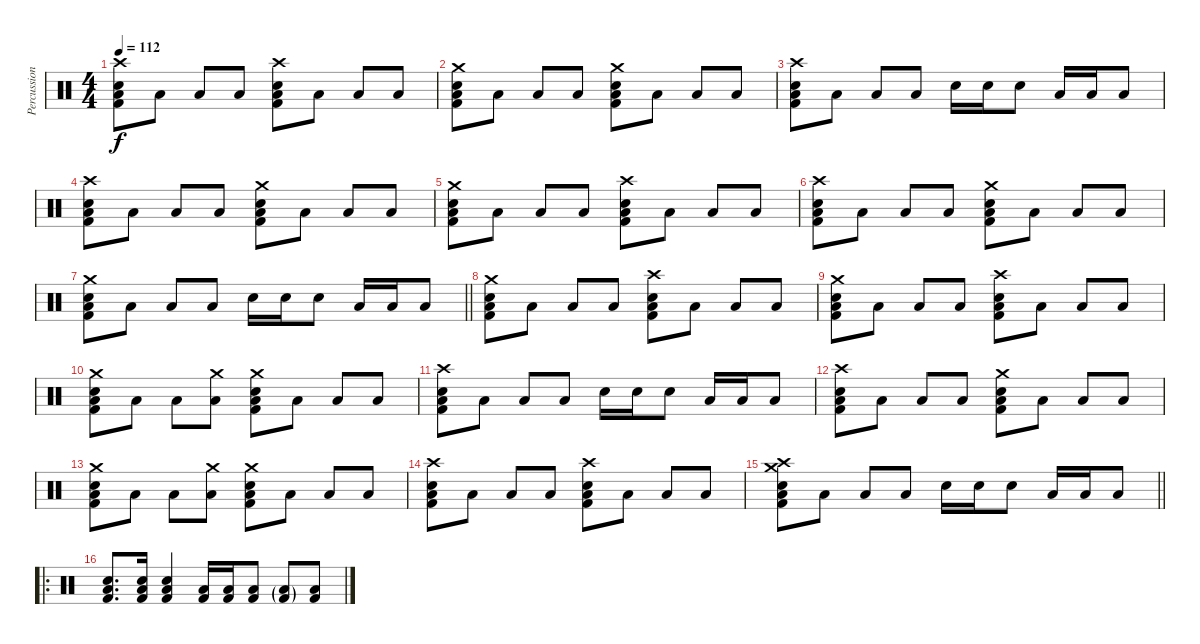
\track ("Percussion" "Percussion") {instrument percussion}
\staff {score}
\articulation defaults
\ts (4 4)
\tempo 112
\clef neutral
\ks c
("Snare (hit) 2" "Low Floor Tom (hit)" "Kick (hit) 2" "Crash high (hit)").8{dy f} "Low Floor Tom (hit)".8 "Low Floor Tom (hit)".8 "Low Floor Tom (hit)".8 ("Snare (hit) 2" "Low Floor Tom (hit)" "Kick (hit) 2" "Crash high (hit)").8 "Low Floor Tom (hit)".8 "Low Floor Tom (hit)".8 "Low Floor Tom (hit)".8 |
("Snare (hit) 2" "Low Floor Tom (hit)" "Kick (hit) 2" "Crash medium (hit)").8 "Low Floor Tom (hit)".8 "Low Floor Tom (hit)".8 "Low Floor Tom (hit)".8 ("Snare (hit) 2" "Low Floor Tom (hit)" "Kick (hit) 2" "Crash medium (hit)").8 "Low Floor Tom (hit)".8 "Low Floor Tom (hit)".8 "Low Floor Tom (hit)".8 |
("Snare (hit) 2" "Low Floor Tom (hit)" "Kick (hit) 2" "Crash high (hit)").8 "Low Floor Tom (hit)".8 "Low Floor Tom (hit)".8 "Low Floor Tom (hit)".8 "Snare (hit) 2".16 "Snare (hit) 2".16 "Snare (hit) 2".8 "Low Tom (hit)".16 "Low Tom (hit)".16 "Low Tom (hit)".8 |
("Snare (hit) 2" "Low Floor Tom (hit)" "Kick (hit) 2" "Crash high (hit)").8 "Low Floor Tom (hit)".8 "Low Floor Tom (hit)".8 "Low Floor Tom (hit)".8 ("Snare (hit) 2" "Low Floor Tom (hit)" "Kick (hit) 2" "Crash medium (hit)").8 "Low Floor Tom (hit)".8 "Low Floor Tom (hit)".8 "Low Floor Tom (hit)".8 |
("Snare (hit) 2" "Low Floor Tom (hit)" "Kick (hit) 2" "Crash medium (hit)").8 "Low Floor Tom (hit)".8 "Low Floor Tom (hit)".8 "Low Floor Tom (hit)".8 ("Snare (hit) 2" "Low Floor Tom (hit)" "Kick (hit) 2" "Crash high (hit)").8 "Low Floor Tom (hit)".8 "Low Floor Tom (hit)".8 "Low Floor Tom (hit)".8 |
("Snare (hit) 2" "Low Floor Tom (hit)" "Kick (hit) 2" "Crash high (hit)").8 "Low Floor Tom (hit)".8 "Low Floor Tom (hit)".8 "Low Floor Tom (hit)".8 ("Snare (hit) 2" "Low Floor Tom (hit)" "Kick (hit) 2" "Crash medium (hit)").8 "Low Floor Tom (hit)".8 "Low Floor Tom (hit)".8 "Low Floor Tom (hit)".8 |
\barLineRight lightlight
("Snare (hit) 2" "Low Floor Tom (hit)" "Kick (hit) 2" "Crash medium (hit)").8 "Low Floor Tom (hit)".8 "Low Floor Tom (hit)".8 "Low Floor Tom (hit)".8 "Snare (hit) 2".16 "Snare (hit) 2".16 "Snare (hit) 2".8 "Low Tom (hit)".16 "Low Tom (hit)".16 "Low Tom (hit)".8 |
("Snare (hit) 2" "Low Floor Tom (hit)" "Kick (hit) 2" "Crash medium (hit)").8 "Low Floor Tom (hit)".8 "Low Floor Tom (hit)".8 "Low Floor Tom (hit)".8 ("Snare (hit) 2" "Low Floor Tom (hit)" "Kick (hit) 2" "Crash high (hit)").8 "Low Floor Tom (hit)".8 "Low Floor Tom (hit)".8 "Low Floor Tom (hit)".8 |
("Snare (hit) 2" "Low Floor Tom (hit)" "Kick (hit) 2" "Crash medium (hit)").8 "Low Floor Tom (hit)".8 "Low Floor Tom (hit)".8 "Low Floor Tom (hit)".8 ("Snare (hit) 2" "Low Floor Tom (hit)" "Kick (hit) 2" "Crash high (hit)").8 "Low Floor Tom (hit)".8 "Low Floor Tom (hit)".8 "Low Floor Tom (hit)".8 |
("Snare (hit) 2" "Low Floor Tom (hit)" "Kick (hit) 2" "Crash medium (hit)").8 "Low Floor Tom (hit)".8 "Low Floor Tom (hit)".8 ("Low Floor Tom (hit)" "Crash medium (hit)").8 ("Snare (hit) 2" "Low Floor Tom (hit)" "Kick (hit) 2" "Crash medium (hit)").8 "Low Floor Tom (hit)".8 "Low Floor Tom (hit)".8 "Low Floor Tom (hit)".8 |
("Snare (hit) 2" "Low Floor Tom (hit)" "Kick (hit) 2" "Crash high (hit)").8 "Low Floor Tom (hit)".8 "Low Floor Tom (hit)".8 "Low Floor Tom (hit)".8 "Snare (hit) 2".16 "Snare (hit) 2".16 "Snare (hit) 2".8 "Low Tom (hit)".16 "Low Tom (hit)".16 "Low Tom (hit)".8 |
("Snare (hit) 2" "Low Floor Tom (hit)" "Kick (hit) 2" "Crash high (hit)").8 "Low Floor Tom (hit)".8 "Low Floor Tom (hit)".8 "Low Floor Tom (hit)".8 ("Snare (hit) 2" "Low Floor Tom (hit)" "Kick (hit) 2" "Crash medium (hit)").8 "Low Floor Tom (hit)".8 "Low Floor Tom (hit)".8 "Low Floor Tom (hit)".8 |
("Snare (hit) 2" "Low Floor Tom (hit)" "Kick (hit) 2" "Crash medium (hit)").8 "Low Floor Tom (hit)".8 "Low Floor Tom (hit)".8 ("Low Floor Tom (hit)" "Crash medium (hit)").8 ("Snare (hit) 2" "Low Floor Tom (hit)" "Kick (hit) 2" "Crash medium (hit)").8 "Low Floor Tom (hit)".8 "Low Floor Tom (hit)".8 "Low Floor Tom (hit)".8 |
("Snare (hit) 2" "Low Floor Tom (hit)" "Kick (hit) 2" "Crash high (hit)").8 "Low Floor Tom (hit)".8 "Low Floor Tom (hit)".8 "Low Floor Tom (hit)".8 ("Snare (hit) 2" "Low Floor Tom (hit)" "Kick (hit) 2" "Crash high (hit)").8 "Low Floor Tom (hit)".8 "Low Floor Tom (hit)".8 "Low Floor Tom (hit)".8 |
\barLineRight lightlight
("Snare (hit) 2" "Low Floor Tom (hit)" "Kick (hit) 2" "Crash high (hit)" "Crash medium (hit)").8 "Low Floor Tom (hit)".8 "Low Floor Tom (hit)".8 "Low Floor Tom (hit)".8 "Snare (hit) 2".16 "Snare (hit) 2".16 "Snare (hit) 2".8 "Low Tom (hit)".16 "Low Tom (hit)".16 "Low Tom (hit)".8 |
\ro
("Snare (hit) 2" "Low Floor Tom (hit)" "Kick (hit) 2").8{d} ("Snare (hit) 2" "Low Floor Tom (hit)" "Kick (hit) 2").16 ("Snare (hit) 2" "Low Floor Tom (hit)" "Kick (hit) 2").4 ("Low Floor Tom (hit)" "Kick (hit) 2").16 ("Low Floor Tom (hit)" "Kick (hit) 2").16 ("Low Floor Tom (hit)" "Kick (hit) 2").8 ("Low Floor Tom (hit)"{g} "Kick (hit) 2"{g}).8 ("Low Floor Tom (hit)" "Kick (hit) 2").8
